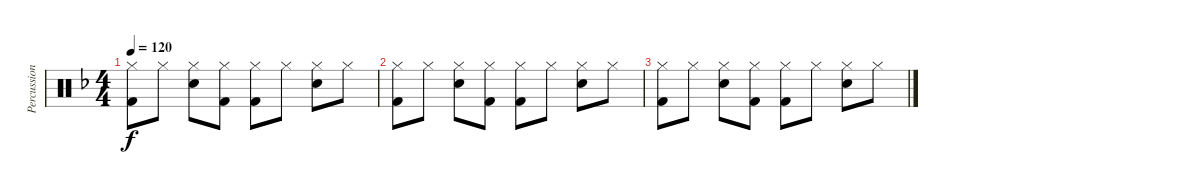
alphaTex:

\track ("Percussion" "Percussion") {instrument percussion}
\staff {score}
\articulation defaults
\ts (4 4)
\tempo 120
\clef neutral
\ks f
("Hi-Hat (closed)" "Kick (hit) 2").8{dy f} "Hi-Hat (closed)".8 ("Hi-Hat (closed)" "Snare (hit) 2").8 ("Hi-Hat (closed)" "Kick (hit) 2").8 ("Hi-Hat (closed)" "Kick (hit) 2").8 "Hi-Hat (closed)".8 ("Hi-Hat (closed)" "Snare (hit) 2").8 "Hi-Hat (closed)".8 |
("Hi-Hat (closed)" "Kick (hit) 2").8 "Hi-Hat (closed)".8 ("Hi-Hat (closed)" "Snare (hit) 2").8 ("Hi-Hat (closed)" "Kick (hit) 2").8 ("Hi-Hat (closed)" "Kick (hit) 2").8 "Hi-Hat (closed)".8 ("Hi-Hat (closed)" "Snare (hit) 2").8 "Hi-Hat (closed)".8 |
("Hi-Hat (closed)" "Kick (hit) 2").8 "Hi-Hat (closed)".8 ("Hi-Hat (closed)" "Snare (hit) 2").8 ("Hi-Hat (closed)" "Kick (hit) 2").8 ("Hi-Hat (closed)" "Kick (hit) 2").8 "Hi-Hat (closed)".8 ("Hi-Hat (closed)" "Snare (hit) 2").8 "Hi-Hat (closed)".8
